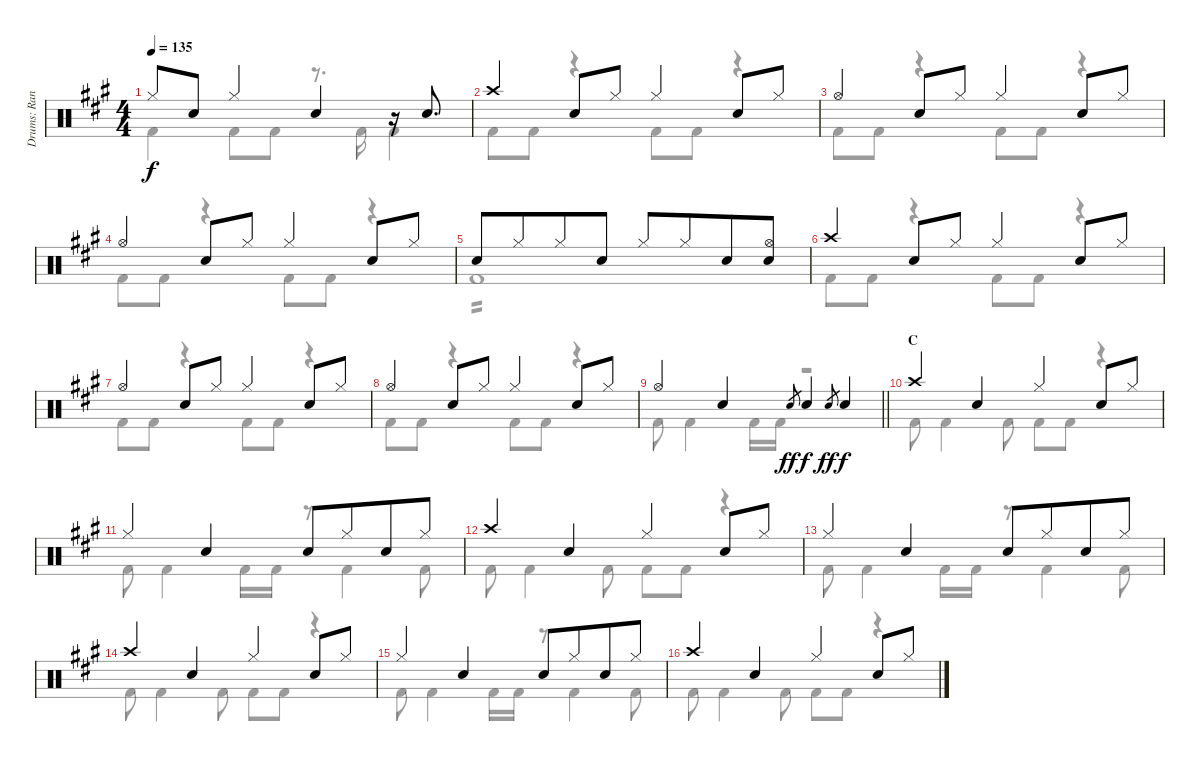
\track ("Drums: Randy" "Drums: Ran") {instrument percussion}
\staff {score}
\articulation defaults
\voice
\ts (4 4)
\tempo 135
\clef neutral
\ks a "Hi-Hat (closed)".8{dy f} "Snare (hit) 2".8 "Hi-Hat (closed)".4 "Snare (hit) 2".4
r.16 "Snare (hit) 2".8{d} |
"Crash high (hit)".4 "Snare (hit) 2".8 "Hi-Hat (closed)".8 "Hi-Hat (closed)".4 "Snare (hit) 2".8 "Hi-Hat (closed)".8 |
"Hi-Hat (open)".4 "Snare (hit) 2".8 "Hi-Hat (closed)".8 "Hi-Hat (closed)".4 "Snare (hit) 2".8 "Hi-Hat (closed)".8 |
"Hi-Hat (open)".4 "Snare (hit) 2".8 "Hi-Hat (closed)".8 "Hi-Hat (closed)".4 "Snare (hit) 2".8 "Hi-Hat (closed)".8 |
"Snare (hit) 2".8 "Hi-Hat (closed)".8{beam merge} "Hi-Hat (closed)".8 "Snare (hit) 2".8 "Hi-Hat (closed)".8 "Hi-Hat (closed)".8{beam merge} "Snare (hit) 2".8 ("Hi-Hat (open)" "Snare (hit) 2").8 |
"Crash high (hit)".4 "Snare (hit) 2".8 "Hi-Hat (closed)".8 "Hi-Hat (closed)".4 "Snare (hit) 2".8 "Hi-Hat (closed)".8 |
"Hi-Hat (open)".4 "Snare (hit) 2".8 "Hi-Hat (closed)".8 "Hi-Hat (closed)".4 "Snare (hit) 2".8 "Hi-Hat (closed)".8 |
"Hi-Hat (open)".4 "Snare (hit) 2".8 "Hi-Hat (closed)".8 "Hi-Hat (closed)".4 "Snare (hit) 2".8 "Hi-Hat (closed)".8 |
\barLineRight lightlight "Hi-Hat (open)".4 "Snare (hit) 2".4 "Electric Snare (hit)".8{gr dy ff} "Snare (hit) 2".4{dy f} "Electric Snare (hit)".8{gr dy ff} "Snare (hit) 2".4{dy f}
|
\section ("" "C")
"Crash high (hit)".4 "Snare (hit) 2".4 "Hi-Hat (closed)".4 "Snare (hit) 2".8 "Hi-Hat (closed)".8 |
"Hi-Hat (closed)".4 "Snare (hit) 2".4 "Snare (hit) 2".8 "Hi-Hat (closed)".8{beam merge} "Snare (hit) 2".8 "Hi-Hat (closed)".8 |
"Crash high (hit)".4 "Snare (hit) 2".4 "Hi-Hat (closed)".4 "Snare (hit) 2".8 "Hi-Hat (closed)".8 |
"Hi-Hat (closed)".4 "Snare (hit) 2".4 "Snare (hit) 2".8 "Hi-Hat (closed)".8{beam merge} "Snare (hit) 2".8 "Hi-Hat (closed)".8 |
"Crash high (hit)".4 "Snare (hit) 2".4 "Hi-Hat (closed)".4 "Snare (hit) 2".8 "Hi-Hat (closed)".8 |
"Hi-Hat (closed)".4 "Snare (hit) 2".4 "Snare (hit) 2".8 "Hi-Hat (closed)".8{beam merge} "Snare (hit) 2".8 "Hi-Hat (closed)".8 |
"Crash high (hit)".4 "Snare (hit) 2".4 "Hi-Hat (closed)".4 "Snare (hit) 2".8 "Hi-Hat (closed)".8
\voice
\clef neutral
\ottava regular
\simile none
\ks a "Kick (hit) 2".4{dy f} "Kick (hit) 2".8 "Kick (hit) 2".8
r.8{d} "Kick (hit) 2".16 "Kick (hit) 2".4 |
"Kick (hit) 2".8 "Kick (hit) 2".8 r.4 "Kick (hit) 2".8 "Kick (hit) 2".8 r.4 |
"Kick (hit) 2".8 "Kick (hit) 2".8 r.4 "Kick (hit) 2".8 "Kick (hit) 2".8 r.4 |
"Kick (hit) 2".8 "Kick (hit) 2".8 r.4 "Kick (hit) 2".8 "Kick (hit) 2".8 r.4 |
"Kick (hit) 2".1{tp 2} |
"Kick (hit) 2".8 "Kick (hit) 2".8 r.4 "Kick (hit) 2".8 "Kick (hit) 2".8 r.4 |
"Kick (hit) 2".8 "Kick (hit) 2".8 r.4 "Kick (hit) 2".8 "Kick (hit) 2".8 r.4 |
"Kick (hit) 2".8 "Kick (hit) 2".8 r.4 "Kick (hit) 2".8 "Kick (hit) 2".8 r.4 |
\barLineRight lightlight "Kick (hit) 2".8 "Kick (hit) 2".4 "Kick (hit) 2".16 "Kick (hit) 2".16
r.2 |
"Kick (hit) 2".8 "Kick (hit) 2".4 "Kick (hit) 2".8 "Kick (hit) 2".8 "Kick (hit) 2".8 r.4 |
"Kick (hit) 2".8 "Kick (hit) 2".4 "Kick (hit) 2".16 "Kick (hit) 2".16 r.8 "Kick (hit) 2".4 "Kick (hit) 2".8 |
"Kick (hit) 2".8 "Kick (hit) 2".4 "Kick (hit) 2".8 "Kick (hit) 2".8 "Kick (hit) 2".8 r.4 |
"Kick (hit) 2".8 "Kick (hit) 2".4 "Kick (hit) 2".16 "Kick (hit) 2".16 r.8 "Kick (hit) 2".4 "Kick (hit) 2".8 |
"Kick (hit) 2".8 "Kick (hit) 2".4 "Kick (hit) 2".8 "Kick (hit) 2".8 "Kick (hit) 2".8 r.4 |
"Kick (hit) 2".8 "Kick (hit) 2".4 "Kick (hit) 2".16 "Kick (hit) 2".16 r.8 "Kick (hit) 2".4 "Kick (hit) 2".8 |
"Kick (hit) 2".8 "Kick (hit) 2".4 "Kick (hit) 2".8 "Kick (hit) 2".8 "Kick (hit) 2".8 r.4
